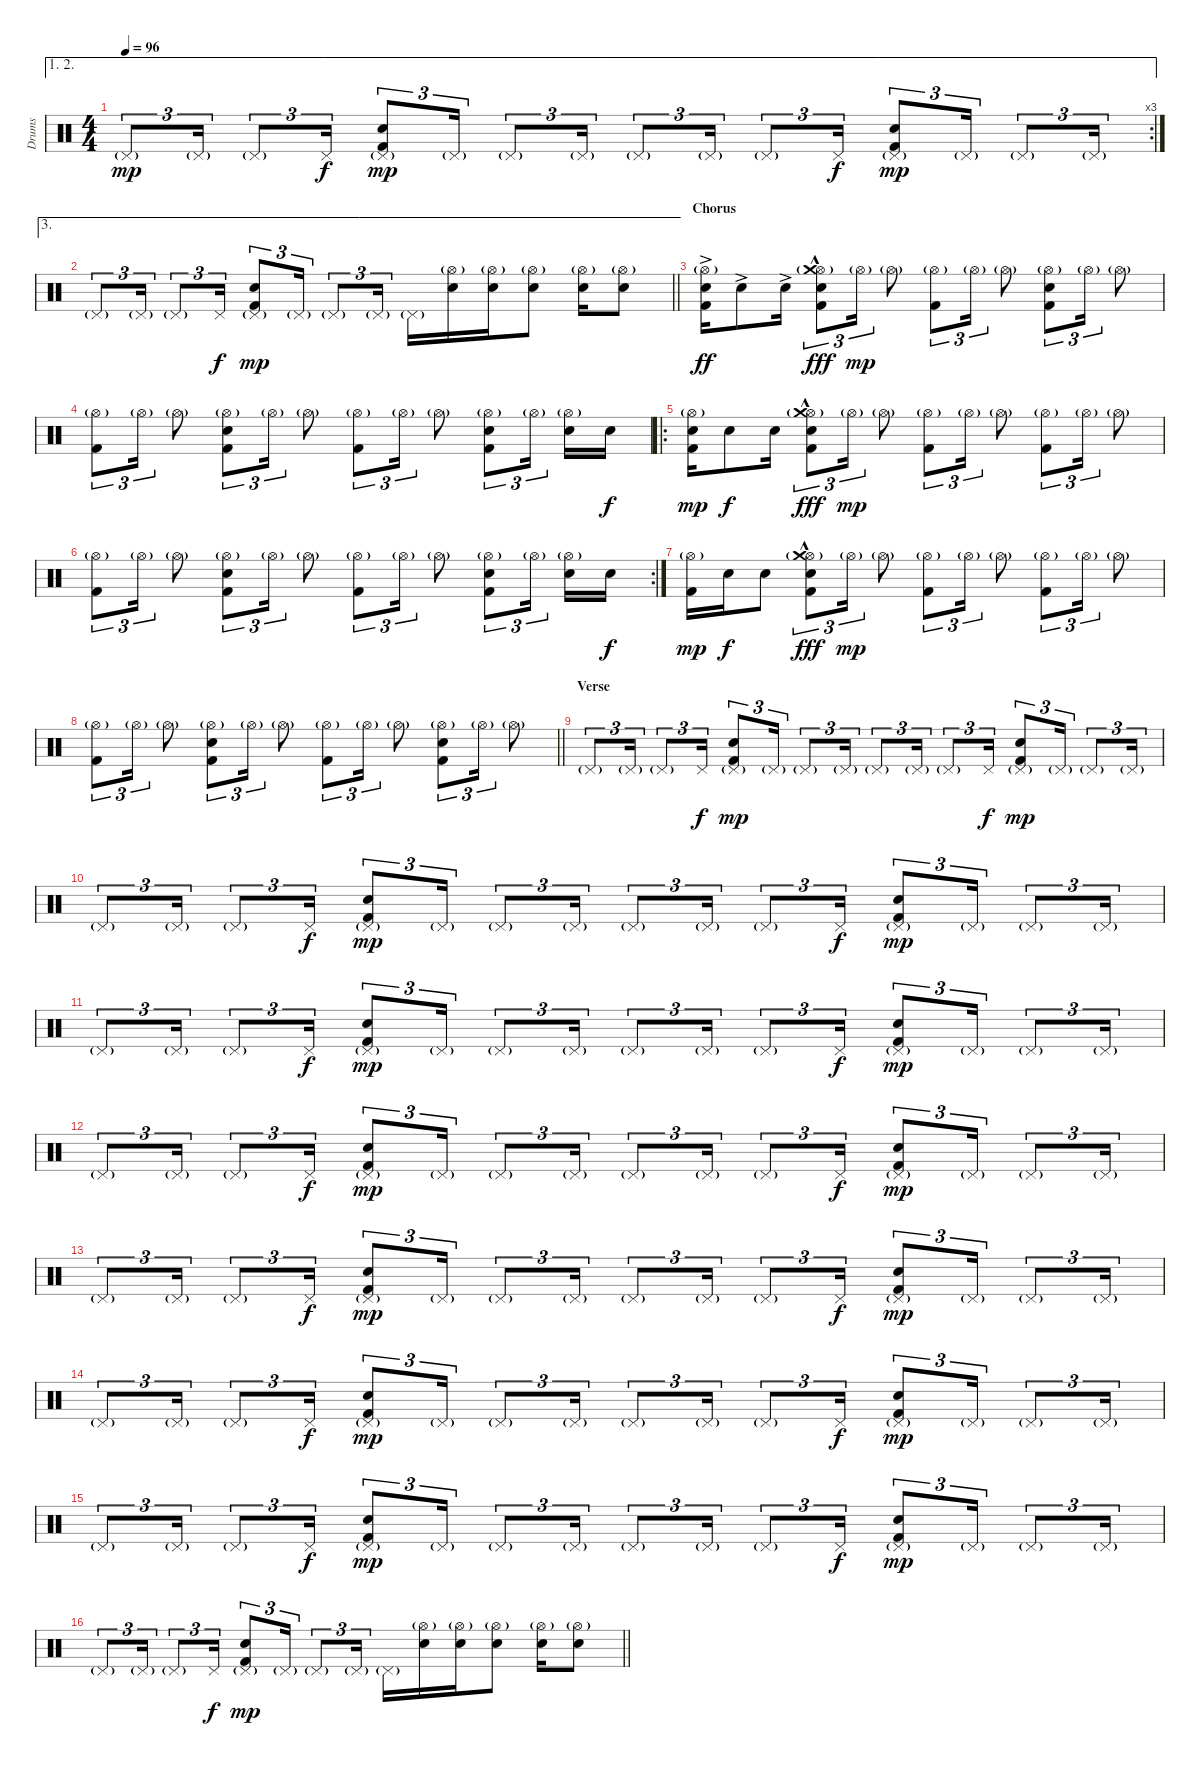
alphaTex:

\track ("Drums" "Drums") {instrument percussion}
\staff {score}
\articulation defaults
\ae (1 2)
\rc 3
\ts (4 4)
\tempo 96
\clef neutral
\ks c "Pedal Hi-Hat (hit)"{g}.8{tu (3 2) dy mp} "Pedal Hi-Hat (hit)"{g}.16{tu (3 2)} "Pedal Hi-Hat (hit)"{g}.8{tu (3 2)} "Pedal Hi-Hat (hit)".16{tu (3 2) dy f}
("Pedal Hi-Hat (hit)"{g} "Electric Snare (hit)" "Kick (hit) 2").8{tu (3 2) dy mp} "Pedal Hi-Hat (hit)"{g}.16{tu (3 2)} "Pedal Hi-Hat (hit)"{g}.8{tu (3 2)} "Pedal Hi-Hat (hit)"{g}.16{tu (3 2)} "Pedal Hi-Hat (hit)"{g}.8{tu (3 2)} "Pedal Hi-Hat (hit)"{g}.16{tu (3 2)} "Pedal Hi-Hat (hit)"{g}.8{tu (3 2)} "Pedal Hi-Hat (hit)".16{tu (3 2) dy f} ("Pedal Hi-Hat (hit)"{g} "Electric Snare (hit)" "Kick (hit) 2").8{tu (3 2) dy mp} "Pedal Hi-Hat (hit)"{g}.16{tu (3 2)} "Pedal Hi-Hat (hit)"{g}.8{tu (3 2)} "Pedal Hi-Hat (hit)"{g}.16{tu (3 2)} |
\ae 3
\barLineRight lightlight "Pedal Hi-Hat (hit)"{g}.8{tu (3 2)} "Pedal Hi-Hat (hit)"{g}.16{tu (3 2)} "Pedal Hi-Hat (hit)"{g}.8{tu (3 2)} "Pedal Hi-Hat (hit)".16{tu (3 2) dy f}
("Pedal Hi-Hat (hit)"{g} "Electric Snare (hit)" "Kick (hit) 2").8{tu (3 2) dy mp} "Pedal Hi-Hat (hit)"{g}.16{tu (3 2)} "Pedal Hi-Hat (hit)"{g}.8{tu (3 2)} "Pedal Hi-Hat (hit)"{g}.16{tu (3 2)} "Pedal Hi-Hat (hit)"{g}.16 ("Hi-Hat (open)"{g} "Electric Snare (hit)").16 ("Hi-Hat (open)"{g} "Electric Snare (hit)").16 ("Hi-Hat (open)"{g} "Electric Snare (hit)").8 ("Hi-Hat (open)"{g} "Electric Snare (hit)").16 ("Hi-Hat (open)"{g} "Electric Snare (hit)").8 |
\section ("" "Chorus")
("Hi-Hat (open)"{g} "Electric Snare (hit)"{ac} "Kick (hit) 2").16{dy ff} "Electric Snare (hit)"{ac}.8 "Electric Snare (hit)"{ac}.16 ("Hi-Hat (open)"{g} "Crash medium (hit)"{hac} "Electric Snare (hit)"{hac} "Kick (hit) 2").8{tu (3 2) dy fff} "Hi-Hat (open)"{g}.16{tu (3 2) dy mp} "Hi-Hat (open)"{g}.8 ("Hi-Hat (open)"{g} "Kick (hit) 2").8{tu (3 2)} "Hi-Hat (open)"{g}.16{tu (3 2)} "Hi-Hat (open)"{g}.8 ("Hi-Hat (open)"{g} "Electric Snare (hit)" "Kick (hit) 2").8{tu (3 2)} "Hi-Hat (open)"{g}.16{tu (3 2)} "Hi-Hat (open)"{g}.8 |
("Hi-Hat (open)"{g} "Kick (hit) 2").8{tu (3 2)} "Hi-Hat (open)"{g}.16{tu (3 2)} "Hi-Hat (open)"{g}.8 ("Hi-Hat (open)"{g} "Electric Snare (hit)" "Kick (hit) 2").8{tu (3 2)} "Hi-Hat (open)"{g}.16{tu (3 2)} "Hi-Hat (open)"{g}.8 ("Hi-Hat (open)"{g} "Kick (hit) 2").8{tu (3 2)} "Hi-Hat (open)"{g}.16{tu (3 2)} "Hi-Hat (open)"{g}.8 ("Hi-Hat (open)"{g} "Electric Snare (hit)" "Kick (hit) 2").8{tu (3 2)} "Hi-Hat (open)"{g}.16{tu (3 2) beam splitsecondary} ("Hi-Hat (open)"{g} "Electric Snare (hit)").16 "Electric Snare (hit)".16{dy f} |
\ro
("Hi-Hat (open)"{g} "Electric Snare (hit)" "Kick (hit) 2").16{dy mp} "Electric Snare (hit)".8{dy f} "Electric Snare (hit)".16 ("Hi-Hat (open)"{g} "Crash medium (hit)"{hac} "Electric Snare (hit)"{hac} "Kick (hit) 2").8{tu (3 2) dy fff} "Hi-Hat (open)"{g}.16{tu (3 2) dy mp} "Hi-Hat (open)"{g}.8 ("Hi-Hat (open)"{g} "Kick (hit) 2").8{tu (3 2)} "Hi-Hat (open)"{g}.16{tu (3 2)} "Hi-Hat (open)"{g}.8 ("Hi-Hat (open)"{g} "Kick (hit) 2").8{tu (3 2)} "Hi-Hat (open)"{g}.16{tu (3 2)} "Hi-Hat (open)"{g}.8 |
\rc 2
("Hi-Hat (open)"{g} "Kick (hit) 2").8{tu (3 2)} "Hi-Hat (open)"{g}.16{tu (3 2)} "Hi-Hat (open)"{g}.8 ("Hi-Hat (open)"{g} "Electric Snare (hit)" "Kick (hit) 2").8{tu (3 2)} "Hi-Hat (open)"{g}.16{tu (3 2)} "Hi-Hat (open)"{g}.8 ("Hi-Hat (open)"{g} "Kick (hit) 2").8{tu (3 2)} "Hi-Hat (open)"{g}.16{tu (3 2)} "Hi-Hat (open)"{g}.8 ("Hi-Hat (open)"{g} "Electric Snare (hit)" "Kick (hit) 2").8{tu (3 2)} "Hi-Hat (open)"{g}.16{tu (3 2) beam splitsecondary} ("Hi-Hat (open)"{g} "Electric Snare (hit)").16 "Electric Snare (hit)".16{dy f} |
("Hi-Hat (open)"{g} "Kick (hit) 2").16{dy mp} "Electric Snare (hit)".16{dy f} "Electric Snare (hit)".8 ("Hi-Hat (open)"{g} "Crash medium (hit)"{hac} "Electric Snare (hit)"{hac} "Kick (hit) 2").8{tu (3 2) dy fff} "Hi-Hat (open)"{g}.16{tu (3 2) dy mp} "Hi-Hat (open)"{g}.8 ("Hi-Hat (open)"{g} "Kick (hit) 2").8{tu (3 2)} "Hi-Hat (open)"{g}.16{tu (3 2)} "Hi-Hat (open)"{g}.8 ("Hi-Hat (open)"{g} "Kick (hit) 2").8{tu (3 2)} "Hi-Hat (open)"{g}.16{tu (3 2)} "Hi-Hat (open)"{g}.8 |
\barLineRight lightlight
("Hi-Hat (open)"{g} "Kick (hit) 2").8{tu (3 2)} "Hi-Hat (open)"{g}.16{tu (3 2)} "Hi-Hat (open)"{g}.8 ("Hi-Hat (open)"{g} "Electric Snare (hit)" "Kick (hit) 2").8{tu (3 2)} "Hi-Hat (open)"{g}.16{tu (3 2)} "Hi-Hat (open)"{g}.8 ("Hi-Hat (open)"{g} "Kick (hit) 2").8{tu (3 2)} "Hi-Hat (open)"{g}.16{tu (3 2)} "Hi-Hat (open)"{g}.8 ("Hi-Hat (open)"{g} "Electric Snare (hit)" "Kick (hit) 2").8{tu (3 2)} "Hi-Hat (open)"{g}.16{tu (3 2)} "Hi-Hat (open)"{g}.8 |
\section ("" "Verse")
"Pedal Hi-Hat (hit)"{g}.8{tu (3 2)} "Pedal Hi-Hat (hit)"{g}.16{tu (3 2)} "Pedal Hi-Hat (hit)"{g}.8{tu (3 2)} "Pedal Hi-Hat (hit)".16{tu (3 2) dy f} ("Pedal Hi-Hat (hit)"{g} "Electric Snare (hit)" "Kick (hit) 2").8{tu (3 2) dy mp} "Pedal Hi-Hat (hit)"{g}.16{tu (3 2)} "Pedal Hi-Hat (hit)"{g}.8{tu (3 2)} "Pedal Hi-Hat (hit)"{g}.16{tu (3 2)} "Pedal Hi-Hat (hit)"{g}.8{tu (3 2)} "Pedal Hi-Hat (hit)"{g}.16{tu (3 2)} "Pedal Hi-Hat (hit)"{g}.8{tu (3 2)} "Pedal Hi-Hat (hit)".16{tu (3 2) dy f} ("Pedal Hi-Hat (hit)"{g} "Electric Snare (hit)" "Kick (hit) 2").8{tu (3 2) dy mp} "Pedal Hi-Hat (hit)"{g}.16{tu (3 2)} "Pedal Hi-Hat (hit)"{g}.8{tu (3 2)} "Pedal Hi-Hat (hit)"{g}.16{tu (3 2)} |
"Pedal Hi-Hat (hit)"{g}.8{tu (3 2)} "Pedal Hi-Hat (hit)"{g}.16{tu (3 2)} "Pedal Hi-Hat (hit)"{g}.8{tu (3 2)} "Pedal Hi-Hat (hit)".16{tu (3 2) dy f} ("Pedal Hi-Hat (hit)"{g} "Electric Snare (hit)" "Kick (hit) 2").8{tu (3 2) dy mp} "Pedal Hi-Hat (hit)"{g}.16{tu (3 2)} "Pedal Hi-Hat (hit)"{g}.8{tu (3 2)} "Pedal Hi-Hat (hit)"{g}.16{tu (3 2)} "Pedal Hi-Hat (hit)"{g}.8{tu (3 2)} "Pedal Hi-Hat (hit)"{g}.16{tu (3 2)} "Pedal Hi-Hat (hit)"{g}.8{tu (3 2)} "Pedal Hi-Hat (hit)".16{tu (3 2) dy f} ("Pedal Hi-Hat (hit)"{g} "Electric Snare (hit)" "Kick (hit) 2").8{tu (3 2) dy mp} "Pedal Hi-Hat (hit)"{g}.16{tu (3 2)} "Pedal Hi-Hat (hit)"{g}.8{tu (3 2)} "Pedal Hi-Hat (hit)"{g}.16{tu (3 2)} |
"Pedal Hi-Hat (hit)"{g}.8{tu (3 2)} "Pedal Hi-Hat (hit)"{g}.16{tu (3 2)} "Pedal Hi-Hat (hit)"{g}.8{tu (3 2)} "Pedal Hi-Hat (hit)".16{tu (3 2) dy f} ("Pedal Hi-Hat (hit)"{g} "Electric Snare (hit)" "Kick (hit) 2").8{tu (3 2) dy mp} "Pedal Hi-Hat (hit)"{g}.16{tu (3 2)} "Pedal Hi-Hat (hit)"{g}.8{tu (3 2)} "Pedal Hi-Hat (hit)"{g}.16{tu (3 2)} "Pedal Hi-Hat (hit)"{g}.8{tu (3 2)} "Pedal Hi-Hat (hit)"{g}.16{tu (3 2)} "Pedal Hi-Hat (hit)"{g}.8{tu (3 2)} "Pedal Hi-Hat (hit)".16{tu (3 2) dy f} ("Pedal Hi-Hat (hit)"{g} "Electric Snare (hit)" "Kick (hit) 2").8{tu (3 2) dy mp} "Pedal Hi-Hat (hit)"{g}.16{tu (3 2)} "Pedal Hi-Hat (hit)"{g}.8{tu (3 2)} "Pedal Hi-Hat (hit)"{g}.16{tu (3 2)} |
"Pedal Hi-Hat (hit)"{g}.8{tu (3 2)} "Pedal Hi-Hat (hit)"{g}.16{tu (3 2)} "Pedal Hi-Hat (hit)"{g}.8{tu (3 2)} "Pedal Hi-Hat (hit)".16{tu (3 2) dy f} ("Pedal Hi-Hat (hit)"{g} "Electric Snare (hit)" "Kick (hit) 2").8{tu (3 2) dy mp} "Pedal Hi-Hat (hit)"{g}.16{tu (3 2)} "Pedal Hi-Hat (hit)"{g}.8{tu (3 2)} "Pedal Hi-Hat (hit)"{g}.16{tu (3 2)} "Pedal Hi-Hat (hit)"{g}.8{tu (3 2)} "Pedal Hi-Hat (hit)"{g}.16{tu (3 2)} "Pedal Hi-Hat (hit)"{g}.8{tu (3 2)} "Pedal Hi-Hat (hit)".16{tu (3 2) dy f} ("Pedal Hi-Hat (hit)"{g} "Electric Snare (hit)" "Kick (hit) 2").8{tu (3 2) dy mp} "Pedal Hi-Hat (hit)"{g}.16{tu (3 2)} "Pedal Hi-Hat (hit)"{g}.8{tu (3 2)} "Pedal Hi-Hat (hit)"{g}.16{tu (3 2)} |
"Pedal Hi-Hat (hit)"{g}.8{tu (3 2)} "Pedal Hi-Hat (hit)"{g}.16{tu (3 2)} "Pedal Hi-Hat (hit)"{g}.8{tu (3 2)} "Pedal Hi-Hat (hit)".16{tu (3 2) dy f} ("Pedal Hi-Hat (hit)"{g} "Electric Snare (hit)" "Kick (hit) 2").8{tu (3 2) dy mp} "Pedal Hi-Hat (hit)"{g}.16{tu (3 2)} "Pedal Hi-Hat (hit)"{g}.8{tu (3 2)} "Pedal Hi-Hat (hit)"{g}.16{tu (3 2)} "Pedal Hi-Hat (hit)"{g}.8{tu (3 2)} "Pedal Hi-Hat (hit)"{g}.16{tu (3 2)} "Pedal Hi-Hat (hit)"{g}.8{tu (3 2)} "Pedal Hi-Hat (hit)".16{tu (3 2) dy f} ("Pedal Hi-Hat (hit)"{g} "Electric Snare (hit)" "Kick (hit) 2").8{tu (3 2) dy mp} "Pedal Hi-Hat (hit)"{g}.16{tu (3 2)} "Pedal Hi-Hat (hit)"{g}.8{tu (3 2)} "Pedal Hi-Hat (hit)"{g}.16{tu (3 2)} |
"Pedal Hi-Hat (hit)"{g}.8{tu (3 2)} "Pedal Hi-Hat (hit)"{g}.16{tu (3 2)} "Pedal Hi-Hat (hit)"{g}.8{tu (3 2)} "Pedal Hi-Hat (hit)".16{tu (3 2) dy f} ("Pedal Hi-Hat (hit)"{g} "Electric Snare (hit)" "Kick (hit) 2").8{tu (3 2) dy mp} "Pedal Hi-Hat (hit)"{g}.16{tu (3 2)} "Pedal Hi-Hat (hit)"{g}.8{tu (3 2)} "Pedal Hi-Hat (hit)"{g}.16{tu (3 2)} "Pedal Hi-Hat (hit)"{g}.8{tu (3 2)} "Pedal Hi-Hat (hit)"{g}.16{tu (3 2)} "Pedal Hi-Hat (hit)"{g}.8{tu (3 2)} "Pedal Hi-Hat (hit)".16{tu (3 2) dy f} ("Pedal Hi-Hat (hit)"{g} "Electric Snare (hit)" "Kick (hit) 2").8{tu (3 2) dy mp} "Pedal Hi-Hat (hit)"{g}.16{tu (3 2)} "Pedal Hi-Hat (hit)"{g}.8{tu (3 2)} "Pedal Hi-Hat (hit)"{g}.16{tu (3 2)} |
"Pedal Hi-Hat (hit)"{g}.8{tu (3 2)} "Pedal Hi-Hat (hit)"{g}.16{tu (3 2)} "Pedal Hi-Hat (hit)"{g}.8{tu (3 2)} "Pedal Hi-Hat (hit)".16{tu (3 2) dy f} ("Pedal Hi-Hat (hit)"{g} "Electric Snare (hit)" "Kick (hit) 2").8{tu (3 2) dy mp} "Pedal Hi-Hat (hit)"{g}.16{tu (3 2)} "Pedal Hi-Hat (hit)"{g}.8{tu (3 2)} "Pedal Hi-Hat (hit)"{g}.16{tu (3 2)} "Pedal Hi-Hat (hit)"{g}.8{tu (3 2)} "Pedal Hi-Hat (hit)"{g}.16{tu (3 2)} "Pedal Hi-Hat (hit)"{g}.8{tu (3 2)} "Pedal Hi-Hat (hit)".16{tu (3 2) dy f} ("Pedal Hi-Hat (hit)"{g} "Electric Snare (hit)" "Kick (hit) 2").8{tu (3 2) dy mp} "Pedal Hi-Hat (hit)"{g}.16{tu (3 2)} "Pedal Hi-Hat (hit)"{g}.8{tu (3 2)} "Pedal Hi-Hat (hit)"{g}.16{tu (3 2)} |
\barLineRight lightlight "Pedal Hi-Hat (hit)"{g}.8{tu (3 2)} "Pedal Hi-Hat (hit)"{g}.16{tu (3 2)} "Pedal Hi-Hat (hit)"{g}.8{tu (3 2)} "Pedal Hi-Hat (hit)".16{tu (3 2) dy f}
("Pedal Hi-Hat (hit)"{g} "Electric Snare (hit)" "Kick (hit) 2").8{tu (3 2) dy mp} "Pedal Hi-Hat (hit)"{g}.16{tu (3 2)} "Pedal Hi-Hat (hit)"{g}.8{tu (3 2)} "Pedal Hi-Hat (hit)"{g}.16{tu (3 2)} "Pedal Hi-Hat (hit)"{g}.16 ("Hi-Hat (open)"{g} "Electric Snare (hit)").16 ("Hi-Hat (open)"{g} "Electric Snare (hit)").16 ("Hi-Hat (open)"{g} "Electric Snare (hit)").8 ("Hi-Hat (open)"{g} "Electric Snare (hit)").16 ("Hi-Hat (open)"{g} "Electric Snare (hit)").8
